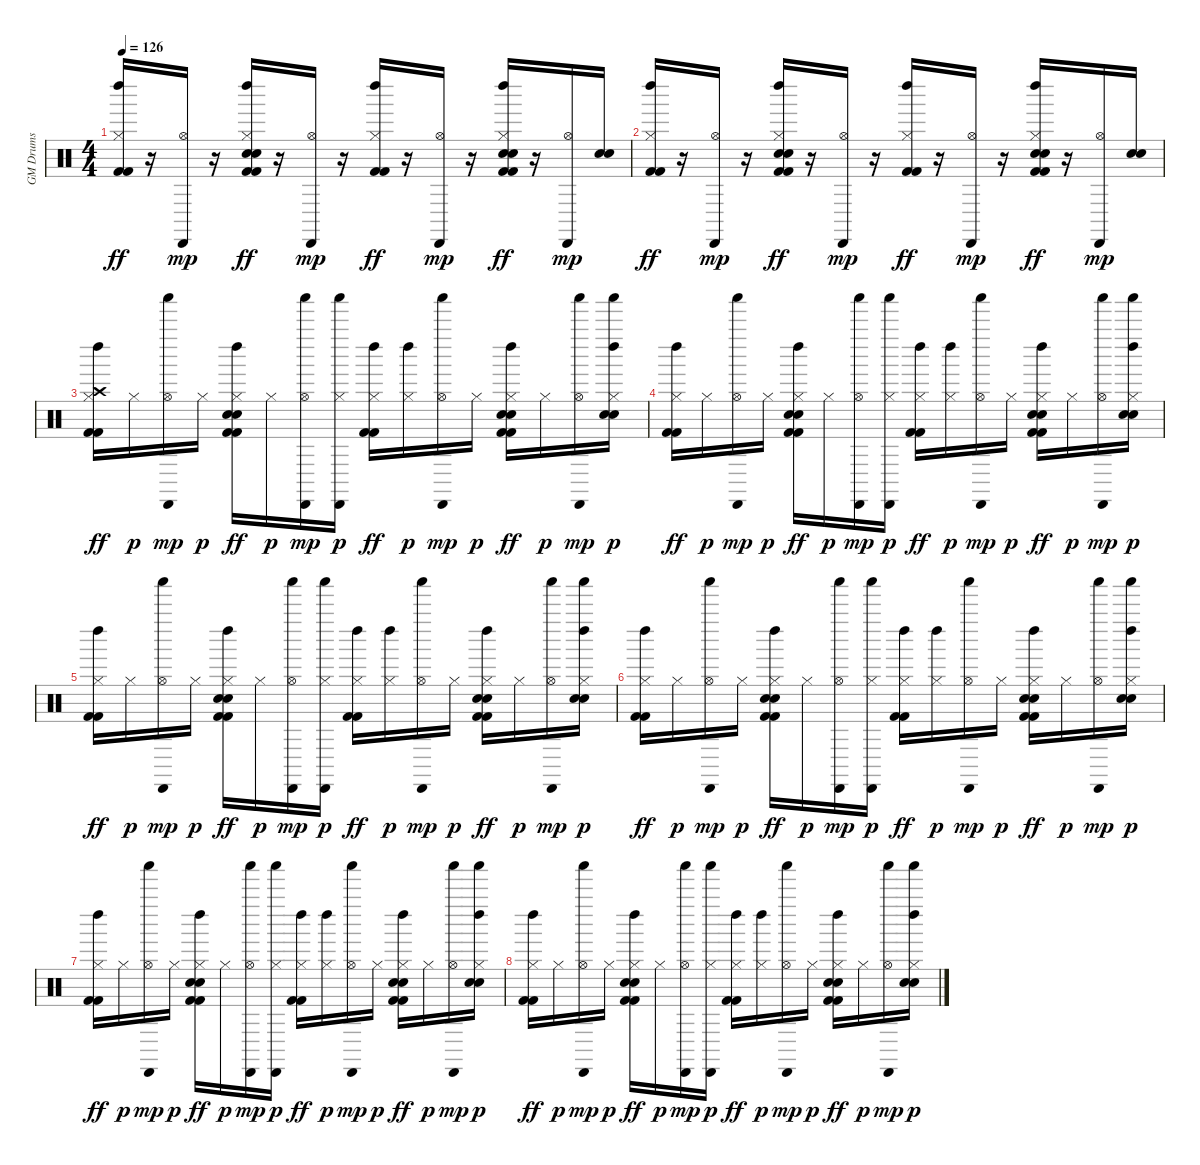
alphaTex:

\track ("GM Drums" "GM Drums") {instrument percussion}
\staff {score}
\articulation defaults
\ts (4 4)
\tempo 126
\clef neutral
\ks c
("Kick (hit) 2" "Kick (hit) 2" "Hi-Hat (closed)" "Left Maraca (hit)").16{dy ff} r.16 ("Hi-Hat (open)" "Cabasa (hit)").16{dy mp} r.16 ("Kick (hit) 2" "Kick (hit) 2" "Hand Clap (hit)" "Electric Snare (hit)" "Hi-Hat (closed)" "Left Maraca (hit)").16{dy ff} r.16 ("Hi-Hat (open)" "Cabasa (hit)").16{dy mp} r.16 ("Kick (hit) 2" "Kick (hit) 2" "Hi-Hat (closed)" "Left Maraca (hit)").16{dy ff} r.16 ("Hi-Hat (open)" "Cabasa (hit)").16{dy mp} r.16 ("Kick (hit) 2" "Kick (hit) 2" "Hand Clap (hit)" "Electric Snare (hit)" "Hi-Hat (closed)" "Left Maraca (hit)").16{dy ff} r.16 ("Hi-Hat (open)" "Cabasa (hit)").16{dy mp} ("Hand Clap (hit)" "Electric Snare (hit)").16 |
("Kick (hit) 2" "Kick (hit) 2" "Hi-Hat (closed)" "Left Maraca (hit)").16{dy ff} r.16 ("Hi-Hat (open)" "Cabasa (hit)").16{dy mp} r.16 ("Kick (hit) 2" "Kick (hit) 2" "Hand Clap (hit)" "Electric Snare (hit)" "Hi-Hat (closed)" "Left Maraca (hit)").16{dy ff} r.16 ("Hi-Hat (open)" "Cabasa (hit)").16{dy mp} r.16 ("Kick (hit) 2" "Kick (hit) 2" "Hi-Hat (closed)" "Left Maraca (hit)").16{dy ff} r.16 ("Hi-Hat (open)" "Cabasa (hit)").16{dy mp} r.16 ("Kick (hit) 2" "Kick (hit) 2" "Hand Clap (hit)" "Electric Snare (hit)" "Hi-Hat (closed)" "Left Maraca (hit)").16{dy ff} r.16 ("Hi-Hat (open)" "Cabasa (hit)").16{dy mp} ("Hand Clap (hit)" "Electric Snare (hit)").16 |
("Kick (hit) 2" "Kick (hit) 2" "Hi-Hat (closed)" "Crash high (hit)" "Left Maraca (hit)").16{dy ff} "Hi-Hat (closed)".16{dy p} ("Hi-Hat (open)" "Cabasa (hit)" "Shaker (hit)").16{dy mp} "Hi-Hat (closed)".16{dy p} ("Kick (hit) 2" "Kick (hit) 2" "Hand Clap (hit)" "Electric Snare (hit)" "Hi-Hat (closed)" "Left Maraca (hit)").16{dy ff} "Hi-Hat (closed)".16{dy p} ("Hi-Hat (open)" "Cabasa (hit)" "Shaker (hit)").16{dy mp} ("Hi-Hat (closed)" "Cabasa (hit)" "Shaker (hit)").16{dy p} ("Kick (hit) 2" "Kick (hit) 2" "Hi-Hat (closed)" "Left Maraca (hit)").16{dy ff} ("Hi-Hat (closed)" "Left Maraca (hit)").16{dy p} ("Hi-Hat (open)" "Cabasa (hit)" "Shaker (hit)").16{dy mp} "Hi-Hat (closed)".16{dy p} ("Kick (hit) 2" "Kick (hit) 2" "Hand Clap (hit)" "Electric Snare (hit)" "Hi-Hat (closed)" "Left Maraca (hit)").16{dy ff} "Hi-Hat (closed)".16{dy p} ("Hi-Hat (open)" "Cabasa (hit)" "Shaker (hit)").16{dy mp} ("Hand Clap (hit)" "Electric Snare (hit)" "Hi-Hat (closed)" "Left Maraca (hit)" "Shaker (hit)").16{dy p} |
("Kick (hit) 2" "Kick (hit) 2" "Hi-Hat (closed)" "Left Maraca (hit)").16{dy ff} "Hi-Hat (closed)".16{dy p} ("Hi-Hat (open)" "Cabasa (hit)" "Shaker (hit)").16{dy mp} "Hi-Hat (closed)".16{dy p} ("Kick (hit) 2" "Kick (hit) 2" "Hand Clap (hit)" "Electric Snare (hit)" "Hi-Hat (closed)" "Left Maraca (hit)").16{dy ff} "Hi-Hat (closed)".16{dy p} ("Hi-Hat (open)" "Cabasa (hit)" "Shaker (hit)").16{dy mp} ("Hi-Hat (closed)" "Cabasa (hit)" "Shaker (hit)").16{dy p} ("Kick (hit) 2" "Kick (hit) 2" "Hi-Hat (closed)" "Left Maraca (hit)").16{dy ff} ("Hi-Hat (closed)" "Left Maraca (hit)").16{dy p} ("Hi-Hat (open)" "Cabasa (hit)" "Shaker (hit)").16{dy mp} "Hi-Hat (closed)".16{dy p} ("Kick (hit) 2" "Kick (hit) 2" "Hand Clap (hit)" "Electric Snare (hit)" "Hi-Hat (closed)" "Left Maraca (hit)").16{dy ff} "Hi-Hat (closed)".16{dy p} ("Hi-Hat (open)" "Cabasa (hit)" "Shaker (hit)").16{dy mp} ("Hand Clap (hit)" "Electric Snare (hit)" "Hi-Hat (closed)" "Left Maraca (hit)" "Shaker (hit)").16{dy p} |
("Kick (hit) 2" "Kick (hit) 2" "Hi-Hat (closed)" "Left Maraca (hit)").16{dy ff} "Hi-Hat (closed)".16{dy p} ("Hi-Hat (open)" "Cabasa (hit)" "Shaker (hit)").16{dy mp} "Hi-Hat (closed)".16{dy p} ("Kick (hit) 2" "Kick (hit) 2" "Hand Clap (hit)" "Electric Snare (hit)" "Hi-Hat (closed)" "Left Maraca (hit)").16{dy ff} "Hi-Hat (closed)".16{dy p} ("Hi-Hat (open)" "Cabasa (hit)" "Shaker (hit)").16{dy mp} ("Hi-Hat (closed)" "Cabasa (hit)" "Shaker (hit)").16{dy p} ("Kick (hit) 2" "Kick (hit) 2" "Hi-Hat (closed)" "Left Maraca (hit)").16{dy ff} ("Hi-Hat (closed)" "Left Maraca (hit)").16{dy p} ("Hi-Hat (open)" "Cabasa (hit)" "Shaker (hit)").16{dy mp} "Hi-Hat (closed)".16{dy p} ("Kick (hit) 2" "Kick (hit) 2" "Hand Clap (hit)" "Electric Snare (hit)" "Hi-Hat (closed)" "Left Maraca (hit)").16{dy ff} "Hi-Hat (closed)".16{dy p} ("Hi-Hat (open)" "Cabasa (hit)" "Shaker (hit)").16{dy mp} ("Hand Clap (hit)" "Electric Snare (hit)" "Hi-Hat (closed)" "Left Maraca (hit)" "Shaker (hit)").16{dy p} |
("Kick (hit) 2" "Kick (hit) 2" "Hi-Hat (closed)" "Left Maraca (hit)").16{dy ff} "Hi-Hat (closed)".16{dy p} ("Hi-Hat (open)" "Cabasa (hit)" "Shaker (hit)").16{dy mp} "Hi-Hat (closed)".16{dy p} ("Kick (hit) 2" "Kick (hit) 2" "Hand Clap (hit)" "Electric Snare (hit)" "Hi-Hat (closed)" "Left Maraca (hit)").16{dy ff} "Hi-Hat (closed)".16{dy p} ("Hi-Hat (open)" "Cabasa (hit)" "Shaker (hit)").16{dy mp} ("Hi-Hat (closed)" "Cabasa (hit)" "Shaker (hit)").16{dy p} ("Kick (hit) 2" "Kick (hit) 2" "Hi-Hat (closed)" "Left Maraca (hit)").16{dy ff} ("Hi-Hat (closed)" "Left Maraca (hit)").16{dy p} ("Hi-Hat (open)" "Cabasa (hit)" "Shaker (hit)").16{dy mp} "Hi-Hat (closed)".16{dy p} ("Kick (hit) 2" "Kick (hit) 2" "Hand Clap (hit)" "Electric Snare (hit)" "Hi-Hat (closed)" "Left Maraca (hit)").16{dy ff} "Hi-Hat (closed)".16{dy p} ("Hi-Hat (open)" "Cabasa (hit)" "Shaker (hit)").16{dy mp} ("Hand Clap (hit)" "Electric Snare (hit)" "Hi-Hat (closed)" "Left Maraca (hit)" "Shaker (hit)").16{dy p} |
("Kick (hit) 2" "Kick (hit) 2" "Hi-Hat (closed)" "Left Maraca (hit)").16{dy ff} "Hi-Hat (closed)".16{dy p} ("Hi-Hat (open)" "Cabasa (hit)" "Shaker (hit)").16{dy mp} "Hi-Hat (closed)".16{dy p} ("Kick (hit) 2" "Kick (hit) 2" "Hand Clap (hit)" "Electric Snare (hit)" "Hi-Hat (closed)" "Left Maraca (hit)").16{dy ff} "Hi-Hat (closed)".16{dy p} ("Hi-Hat (open)" "Cabasa (hit)" "Shaker (hit)").16{dy mp} ("Hi-Hat (closed)" "Cabasa (hit)" "Shaker (hit)").16{dy p} ("Kick (hit) 2" "Kick (hit) 2" "Hi-Hat (closed)" "Left Maraca (hit)").16{dy ff} ("Hi-Hat (closed)" "Left Maraca (hit)").16{dy p} ("Hi-Hat (open)" "Cabasa (hit)" "Shaker (hit)").16{dy mp} "Hi-Hat (closed)".16{dy p} ("Kick (hit) 2" "Kick (hit) 2" "Hand Clap (hit)" "Electric Snare (hit)" "Hi-Hat (closed)" "Left Maraca (hit)").16{dy ff} "Hi-Hat (closed)".16{dy p} ("Hi-Hat (open)" "Cabasa (hit)" "Shaker (hit)").16{dy mp} ("Hand Clap (hit)" "Electric Snare (hit)" "Hi-Hat (closed)" "Left Maraca (hit)" "Shaker (hit)").16{dy p} |
("Kick (hit) 2" "Kick (hit) 2" "Hi-Hat (closed)" "Left Maraca (hit)").16{dy ff} "Hi-Hat (closed)".16{dy p} ("Hi-Hat (open)" "Cabasa (hit)" "Shaker (hit)").16{dy mp} "Hi-Hat (closed)".16{dy p} ("Kick (hit) 2" "Kick (hit) 2" "Hand Clap (hit)" "Electric Snare (hit)" "Hi-Hat (closed)" "Left Maraca (hit)").16{dy ff} "Hi-Hat (closed)".16{dy p} ("Hi-Hat (open)" "Cabasa (hit)" "Shaker (hit)").16{dy mp} ("Hi-Hat (closed)" "Cabasa (hit)" "Shaker (hit)").16{dy p} ("Kick (hit) 2" "Kick (hit) 2" "Hi-Hat (closed)" "Left Maraca (hit)").16{dy ff} ("Hi-Hat (closed)" "Left Maraca (hit)").16{dy p} ("Hi-Hat (open)" "Cabasa (hit)" "Shaker (hit)").16{dy mp} "Hi-Hat (closed)".16{dy p} ("Kick (hit) 2" "Kick (hit) 2" "Hand Clap (hit)" "Electric Snare (hit)" "Hi-Hat (closed)" "Left Maraca (hit)").16{dy ff} "Hi-Hat (closed)".16{dy p} ("Hi-Hat (open)" "Cabasa (hit)" "Shaker (hit)").16{dy mp} ("Hand Clap (hit)" "Electric Snare (hit)" "Hi-Hat (closed)" "Left Maraca (hit)" "Shaker (hit)").16{dy p}
